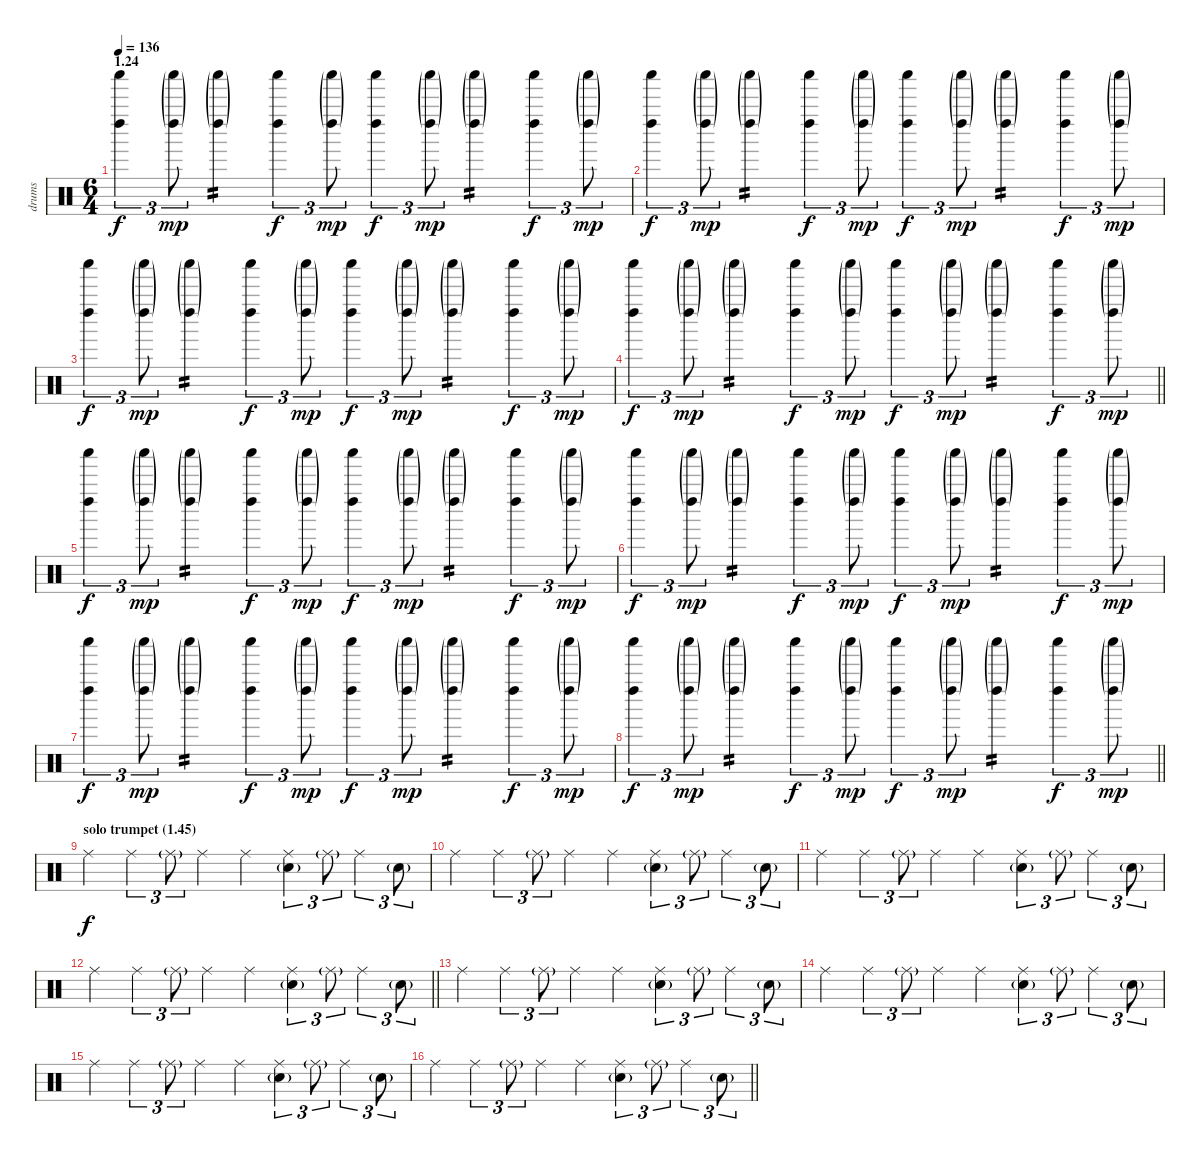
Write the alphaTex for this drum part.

\track ("drums" "drums") {instrument percussion}
\staff {score}
\articulation defaults
\ts (6 4)
\section ("" "1.24")
\tempo 136
\clef neutral
\ks c
("Left Maraca (hit)" "Shaker (hit)").4{tu (3 2) dy f} ("Left Maraca (hit)"{g} "Shaker (hit)"{g}).8{tu (3 2) dy mp} ("Left Maraca (hit)"{g} "Shaker (hit)"{g}).4{tp 2} ("Left Maraca (hit)" "Shaker (hit)").4{tu (3 2) dy f} ("Left Maraca (hit)"{g} "Shaker (hit)"{g}).8{tu (3 2) dy mp} ("Left Maraca (hit)" "Shaker (hit)").4{tu (3 2) dy f} ("Left Maraca (hit)"{g} "Shaker (hit)"{g}).8{tu (3 2) dy mp} ("Left Maraca (hit)"{g} "Shaker (hit)"{g}).4{tp 2} ("Left Maraca (hit)" "Shaker (hit)").4{tu (3 2) dy f} ("Left Maraca (hit)"{g} "Shaker (hit)"{g}).8{tu (3 2) dy mp} |
("Left Maraca (hit)" "Shaker (hit)").4{tu (3 2) dy f} ("Left Maraca (hit)"{g} "Shaker (hit)"{g}).8{tu (3 2) dy mp} ("Left Maraca (hit)"{g} "Shaker (hit)"{g}).4{tp 2} ("Left Maraca (hit)" "Shaker (hit)").4{tu (3 2) dy f} ("Left Maraca (hit)"{g} "Shaker (hit)"{g}).8{tu (3 2) dy mp} ("Left Maraca (hit)" "Shaker (hit)").4{tu (3 2) dy f} ("Left Maraca (hit)"{g} "Shaker (hit)"{g}).8{tu (3 2) dy mp} ("Left Maraca (hit)"{g} "Shaker (hit)"{g}).4{tp 2} ("Left Maraca (hit)" "Shaker (hit)").4{tu (3 2) dy f} ("Left Maraca (hit)"{g} "Shaker (hit)"{g}).8{tu (3 2) dy mp} |
("Left Maraca (hit)" "Shaker (hit)").4{tu (3 2) dy f} ("Left Maraca (hit)"{g} "Shaker (hit)"{g}).8{tu (3 2) dy mp} ("Left Maraca (hit)"{g} "Shaker (hit)"{g}).4{tp 2} ("Left Maraca (hit)" "Shaker (hit)").4{tu (3 2) dy f} ("Left Maraca (hit)"{g} "Shaker (hit)"{g}).8{tu (3 2) dy mp} ("Left Maraca (hit)" "Shaker (hit)").4{tu (3 2) dy f} ("Left Maraca (hit)"{g} "Shaker (hit)"{g}).8{tu (3 2) dy mp} ("Left Maraca (hit)"{g} "Shaker (hit)"{g}).4{tp 2} ("Left Maraca (hit)" "Shaker (hit)").4{tu (3 2) dy f} ("Left Maraca (hit)"{g} "Shaker (hit)"{g}).8{tu (3 2) dy mp} |
\barLineRight lightlight
("Left Maraca (hit)" "Shaker (hit)").4{tu (3 2) dy f} ("Left Maraca (hit)"{g} "Shaker (hit)"{g}).8{tu (3 2) dy mp} ("Left Maraca (hit)"{g} "Shaker (hit)"{g}).4{tp 2} ("Left Maraca (hit)" "Shaker (hit)").4{tu (3 2) dy f} ("Left Maraca (hit)"{g} "Shaker (hit)"{g}).8{tu (3 2) dy mp} ("Left Maraca (hit)" "Shaker (hit)").4{tu (3 2) dy f} ("Left Maraca (hit)"{g} "Shaker (hit)"{g}).8{tu (3 2) dy mp} ("Left Maraca (hit)"{g} "Shaker (hit)"{g}).4{tp 2} ("Left Maraca (hit)" "Shaker (hit)").4{tu (3 2) dy f} ("Left Maraca (hit)"{g} "Shaker (hit)"{g}).8{tu (3 2) dy mp} |
("Left Maraca (hit)" "Shaker (hit)").4{tu (3 2) dy f} ("Left Maraca (hit)"{g} "Shaker (hit)"{g}).8{tu (3 2) dy mp} ("Left Maraca (hit)"{g} "Shaker (hit)"{g}).4{tp 2} ("Left Maraca (hit)" "Shaker (hit)").4{tu (3 2) dy f} ("Left Maraca (hit)"{g} "Shaker (hit)"{g}).8{tu (3 2) dy mp} ("Left Maraca (hit)" "Shaker (hit)").4{tu (3 2) dy f} ("Left Maraca (hit)"{g} "Shaker (hit)"{g}).8{tu (3 2) dy mp} ("Left Maraca (hit)"{g} "Shaker (hit)"{g}).4{tp 2} ("Left Maraca (hit)" "Shaker (hit)").4{tu (3 2) dy f} ("Left Maraca (hit)"{g} "Shaker (hit)"{g}).8{tu (3 2) dy mp} |
("Left Maraca (hit)" "Shaker (hit)").4{tu (3 2) dy f} ("Left Maraca (hit)"{g} "Shaker (hit)"{g}).8{tu (3 2) dy mp} ("Left Maraca (hit)"{g} "Shaker (hit)"{g}).4{tp 2} ("Left Maraca (hit)" "Shaker (hit)").4{tu (3 2) dy f} ("Left Maraca (hit)"{g} "Shaker (hit)"{g}).8{tu (3 2) dy mp} ("Left Maraca (hit)" "Shaker (hit)").4{tu (3 2) dy f} ("Left Maraca (hit)"{g} "Shaker (hit)"{g}).8{tu (3 2) dy mp} ("Left Maraca (hit)"{g} "Shaker (hit)"{g}).4{tp 2} ("Left Maraca (hit)" "Shaker (hit)").4{tu (3 2) dy f} ("Left Maraca (hit)"{g} "Shaker (hit)"{g}).8{tu (3 2) dy mp} |
("Left Maraca (hit)" "Shaker (hit)").4{tu (3 2) dy f} ("Left Maraca (hit)"{g} "Shaker (hit)"{g}).8{tu (3 2) dy mp} ("Left Maraca (hit)"{g} "Shaker (hit)"{g}).4{tp 2} ("Left Maraca (hit)" "Shaker (hit)").4{tu (3 2) dy f} ("Left Maraca (hit)"{g} "Shaker (hit)"{g}).8{tu (3 2) dy mp} ("Left Maraca (hit)" "Shaker (hit)").4{tu (3 2) dy f} ("Left Maraca (hit)"{g} "Shaker (hit)"{g}).8{tu (3 2) dy mp} ("Left Maraca (hit)"{g} "Shaker (hit)"{g}).4{tp 2} ("Left Maraca (hit)" "Shaker (hit)").4{tu (3 2) dy f} ("Left Maraca (hit)"{g} "Shaker (hit)"{g}).8{tu (3 2) dy mp} |
\barLineRight lightlight
("Left Maraca (hit)" "Shaker (hit)").4{tu (3 2) dy f} ("Left Maraca (hit)"{g} "Shaker (hit)"{g}).8{tu (3 2) dy mp} ("Left Maraca (hit)"{g} "Shaker (hit)"{g}).4{tp 2} ("Left Maraca (hit)" "Shaker (hit)").4{tu (3 2) dy f} ("Left Maraca (hit)"{g} "Shaker (hit)"{g}).8{tu (3 2) dy mp} ("Left Maraca (hit)" "Shaker (hit)").4{tu (3 2) dy f} ("Left Maraca (hit)"{g} "Shaker (hit)"{g}).8{tu (3 2) dy mp} ("Left Maraca (hit)"{g} "Shaker (hit)"{g}).4{tp 2} ("Left Maraca (hit)" "Shaker (hit)").4{tu (3 2) dy f} ("Left Maraca (hit)"{g} "Shaker (hit)"{g}).8{tu (3 2) dy mp} |
\section ("" "solo trumpet (1.45)")
"Ride (middle)".4{dy f} "Ride (middle)".4{tu (3 2)} "Ride (middle)"{g}.8{tu (3 2)} "Ride (middle)".4 "Ride (middle)".4 ("Ride (middle)" "Electric Snare (hit)"{g}).4{tu (3 2)} "Ride (middle)"{g}.8{tu (3 2)} "Ride (middle)".4{tu (3 2)} "Electric Snare (hit)"{g}.8{tu (3 2)} |
"Ride (middle)".4 "Ride (middle)".4{tu (3 2)} "Ride (middle)"{g}.8{tu (3 2)} "Ride (middle)".4 "Ride (middle)".4 ("Ride (middle)" "Electric Snare (hit)"{g}).4{tu (3 2)} "Ride (middle)"{g}.8{tu (3 2)} "Ride (middle)".4{tu (3 2)} "Electric Snare (hit)"{g}.8{tu (3 2)} |
"Ride (middle)".4 "Ride (middle)".4{tu (3 2)} "Ride (middle)"{g}.8{tu (3 2)} "Ride (middle)".4 "Ride (middle)".4 ("Ride (middle)" "Electric Snare (hit)"{g}).4{tu (3 2)} "Ride (middle)"{g}.8{tu (3 2)} "Ride (middle)".4{tu (3 2)} "Electric Snare (hit)"{g}.8{tu (3 2)} |
\barLineRight lightlight "Ride (middle)".4 "Ride (middle)".4{tu (3 2)} "Ride (middle)"{g}.8{tu (3 2)} "Ride (middle)".4 "Ride (middle)".4
("Ride (middle)" "Electric Snare (hit)"{g}).4{tu (3 2)} "Ride (middle)"{g}.8{tu (3 2)} "Ride (middle)".4{tu (3 2)} "Electric Snare (hit)"{g}.8{tu (3 2)} |
"Ride (middle)".4 "Ride (middle)".4{tu (3 2)} "Ride (middle)"{g}.8{tu (3 2)} "Ride (middle)".4 "Ride (middle)".4 ("Ride (middle)" "Electric Snare (hit)"{g}).4{tu (3 2)} "Ride (middle)"{g}.8{tu (3 2)} "Ride (middle)".4{tu (3 2)} "Electric Snare (hit)"{g}.8{tu (3 2)} |
"Ride (middle)".4 "Ride (middle)".4{tu (3 2)} "Ride (middle)"{g}.8{tu (3 2)} "Ride (middle)".4 "Ride (middle)".4 ("Ride (middle)" "Electric Snare (hit)"{g}).4{tu (3 2)} "Ride (middle)"{g}.8{tu (3 2)} "Ride (middle)".4{tu (3 2)} "Electric Snare (hit)"{g}.8{tu (3 2)} |
"Ride (middle)".4 "Ride (middle)".4{tu (3 2)} "Ride (middle)"{g}.8{tu (3 2)} "Ride (middle)".4 "Ride (middle)".4 ("Ride (middle)" "Electric Snare (hit)"{g}).4{tu (3 2)} "Ride (middle)"{g}.8{tu (3 2)} "Ride (middle)".4{tu (3 2)} "Electric Snare (hit)"{g}.8{tu (3 2)} |
\barLineRight lightlight "Ride (middle)".4 "Ride (middle)".4{tu (3 2)} "Ride (middle)"{g}.8{tu (3 2)} "Ride (middle)".4 "Ride (middle)".4
("Ride (middle)" "Electric Snare (hit)"{g}).4{tu (3 2)} "Ride (middle)"{g}.8{tu (3 2)} "Ride (middle)".4{tu (3 2)} "Electric Snare (hit)"{g}.8{tu (3 2)}
